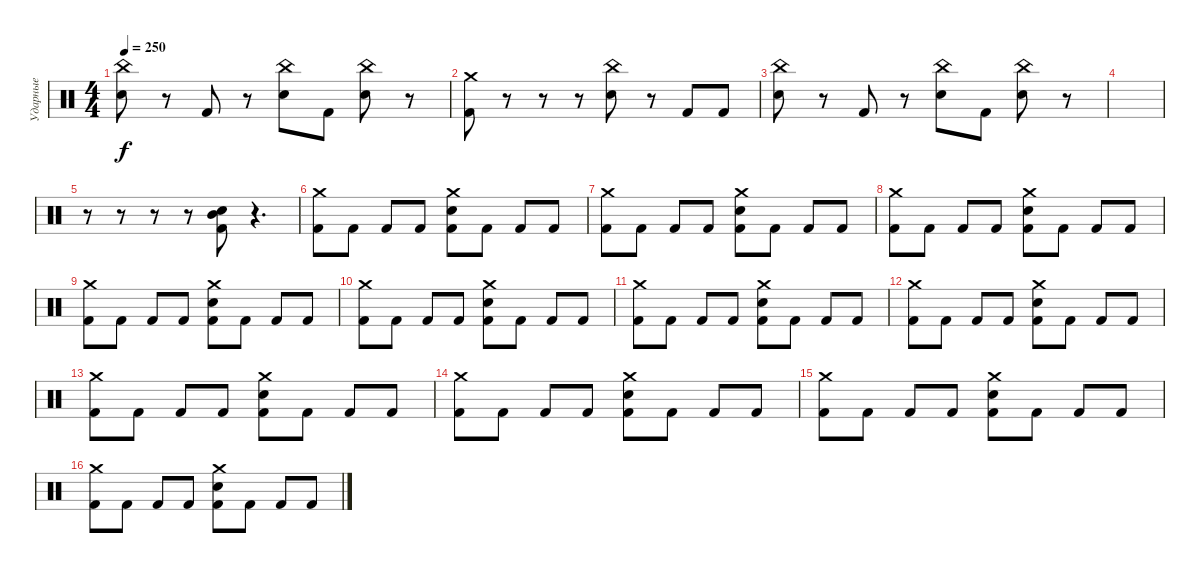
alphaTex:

\track ("Ударные" "Ударные") {instrument percussion}
\staff {score}
\articulation defaults
\ts (4 4)
\tempo 250
\clef neutral
\ks c
("Snare (hit) 2" "China (hit)").8{dy f} r.8 "Kick (hit) 2".8 r.8 ("Snare (hit) 2" "China (hit)").8 "Kick (hit) 2".8 ("Snare (hit) 2" "China (hit)").8 r.8 |
("Crash medium (hit)" "Kick (hit) 2").8 r.8 r.8 r.8 ("Snare (hit) 2" "China (hit)").8 r.8 "Kick (hit) 2".8 "Kick (hit) 2".8 |
("Snare (hit) 2" "China (hit)").8 r.8 "Kick (hit) 2".8 r.8 ("Snare (hit) 2" "China (hit)").8 "Kick (hit) 2".8 ("Snare (hit) 2" "China (hit)").8 r.8 |
|
r.8 r.8 r.8 r.8 ("Mid Tom (hit)" "Snare (hit) 2" "Kick (hit) 2").8 r.4{d} |
("Crash medium (hit)" "Kick (hit) 2").8 "Kick (hit) 2".8 "Kick (hit) 2".8 "Kick (hit) 2".8 ("Crash medium (hit)" "Snare (hit) 2" "Kick (hit) 2").8 "Kick (hit) 2".8 "Kick (hit) 2".8 "Kick (hit) 2".8 |
("Crash medium (hit)" "Kick (hit) 2").8 "Kick (hit) 2".8 "Kick (hit) 2".8 "Kick (hit) 2".8 ("Crash medium (hit)" "Snare (hit) 2" "Kick (hit) 2").8 "Kick (hit) 2".8 "Kick (hit) 2".8 "Kick (hit) 2".8 |
("Crash medium (hit)" "Kick (hit) 2").8 "Kick (hit) 2".8 "Kick (hit) 2".8 "Kick (hit) 2".8 ("Crash medium (hit)" "Snare (hit) 2" "Kick (hit) 2").8 "Kick (hit) 2".8 "Kick (hit) 2".8 "Kick (hit) 2".8 |
("Crash medium (hit)" "Kick (hit) 2").8 "Kick (hit) 2".8 "Kick (hit) 2".8 "Kick (hit) 2".8 ("Crash medium (hit)" "Snare (hit) 2" "Kick (hit) 2").8 "Kick (hit) 2".8 "Kick (hit) 2".8 "Kick (hit) 2".8 |
("Crash medium (hit)" "Kick (hit) 2").8 "Kick (hit) 2".8 "Kick (hit) 2".8 "Kick (hit) 2".8 ("Crash medium (hit)" "Snare (hit) 2" "Kick (hit) 2").8 "Kick (hit) 2".8 "Kick (hit) 2".8 "Kick (hit) 2".8 |
("Crash medium (hit)" "Kick (hit) 2").8 "Kick (hit) 2".8 "Kick (hit) 2".8 "Kick (hit) 2".8 ("Crash medium (hit)" "Snare (hit) 2" "Kick (hit) 2").8 "Kick (hit) 2".8 "Kick (hit) 2".8 "Kick (hit) 2".8 |
("Crash medium (hit)" "Kick (hit) 2").8 "Kick (hit) 2".8 "Kick (hit) 2".8 "Kick (hit) 2".8 ("Crash medium (hit)" "Snare (hit) 2" "Kick (hit) 2").8 "Kick (hit) 2".8 "Kick (hit) 2".8 "Kick (hit) 2".8 |
("Crash medium (hit)" "Kick (hit) 2").8 "Kick (hit) 2".8 "Kick (hit) 2".8 "Kick (hit) 2".8 ("Crash medium (hit)" "Snare (hit) 2" "Kick (hit) 2").8 "Kick (hit) 2".8 "Kick (hit) 2".8 "Kick (hit) 2".8 |
("Crash medium (hit)" "Kick (hit) 2").8 "Kick (hit) 2".8 "Kick (hit) 2".8 "Kick (hit) 2".8 ("Crash medium (hit)" "Snare (hit) 2" "Kick (hit) 2").8 "Kick (hit) 2".8 "Kick (hit) 2".8 "Kick (hit) 2".8 |
("Crash medium (hit)" "Kick (hit) 2").8 "Kick (hit) 2".8 "Kick (hit) 2".8 "Kick (hit) 2".8 ("Crash medium (hit)" "Snare (hit) 2" "Kick (hit) 2").8 "Kick (hit) 2".8 "Kick (hit) 2".8 "Kick (hit) 2".8 |
("Crash medium (hit)" "Kick (hit) 2").8 "Kick (hit) 2".8 "Kick (hit) 2".8 "Kick (hit) 2".8 ("Crash medium (hit)" "Snare (hit) 2" "Kick (hit) 2").8 "Kick (hit) 2".8 "Kick (hit) 2".8 "Kick (hit) 2".8
